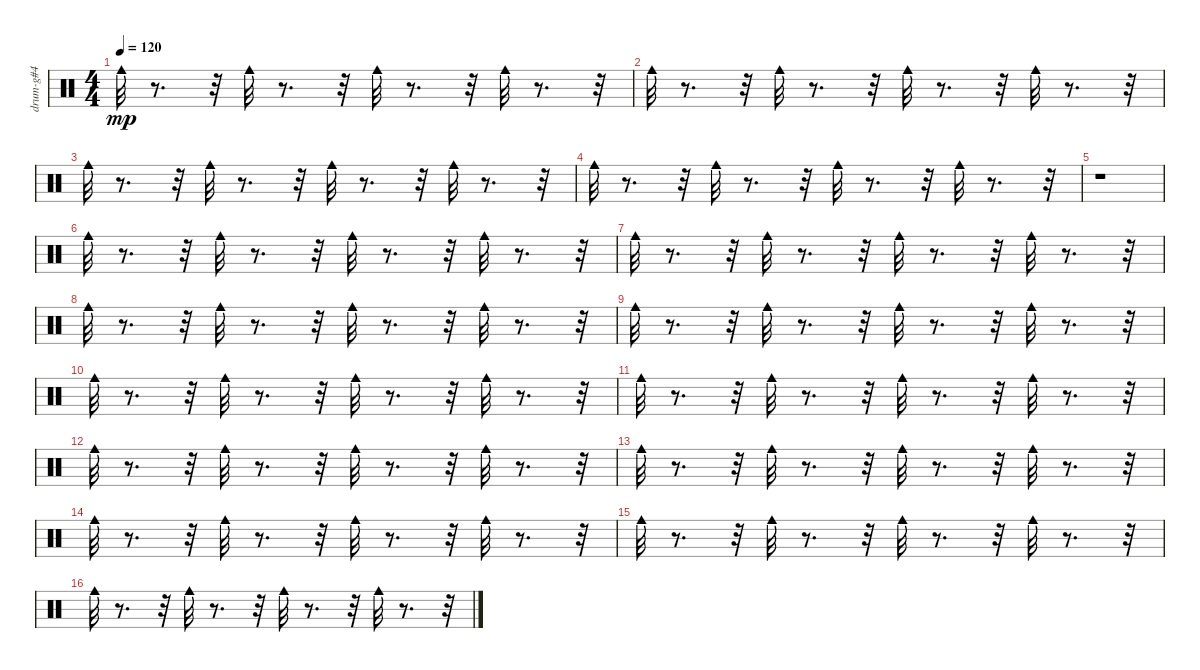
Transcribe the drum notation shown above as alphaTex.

\track ("drum-g#4" "drum-g#4") {instrument percussion}
\staff {score}
\articulation defaults
\ts (4 4)
\tempo 120
\clef neutral
\ks c "Cowbell medium (hit)".32{dy mp}
r.8{d} r.32 "Cowbell medium (hit)".32 r.8{d} r.32 "Cowbell medium (hit)".32 r.8{d} r.32 "Cowbell medium (hit)".32 r.8{d} r.32 |
"Cowbell medium (hit)".32 r.8{d} r.32 "Cowbell medium (hit)".32 r.8{d} r.32 "Cowbell medium (hit)".32 r.8{d} r.32 "Cowbell medium (hit)".32 r.8{d} r.32 |
"Cowbell medium (hit)".32 r.8{d} r.32 "Cowbell medium (hit)".32 r.8{d} r.32 "Cowbell medium (hit)".32 r.8{d} r.32 "Cowbell medium (hit)".32 r.8{d} r.32 |
"Cowbell medium (hit)".32 r.8{d} r.32 "Cowbell medium (hit)".32 r.8{d} r.32 "Cowbell medium (hit)".32 r.8{d} r.32 "Cowbell medium (hit)".32 r.8{d} r.32 |
r.1 |
"Cowbell medium (hit)".32 r.8{d} r.32 "Cowbell medium (hit)".32 r.8{d} r.32 "Cowbell medium (hit)".32 r.8{d} r.32 "Cowbell medium (hit)".32 r.8{d} r.32 |
"Cowbell medium (hit)".32 r.8{d} r.32 "Cowbell medium (hit)".32 r.8{d} r.32 "Cowbell medium (hit)".32 r.8{d} r.32 "Cowbell medium (hit)".32 r.8{d} r.32 |
"Cowbell medium (hit)".32 r.8{d} r.32 "Cowbell medium (hit)".32 r.8{d} r.32 "Cowbell medium (hit)".32 r.8{d} r.32 "Cowbell medium (hit)".32 r.8{d} r.32 |
"Cowbell medium (hit)".32 r.8{d} r.32 "Cowbell medium (hit)".32 r.8{d} r.32 "Cowbell medium (hit)".32 r.8{d} r.32 "Cowbell medium (hit)".32 r.8{d} r.32 |
"Cowbell medium (hit)".32 r.8{d} r.32 "Cowbell medium (hit)".32 r.8{d} r.32 "Cowbell medium (hit)".32 r.8{d} r.32 "Cowbell medium (hit)".32 r.8{d} r.32 |
"Cowbell medium (hit)".32 r.8{d} r.32 "Cowbell medium (hit)".32 r.8{d} r.32 "Cowbell medium (hit)".32 r.8{d} r.32 "Cowbell medium (hit)".32 r.8{d} r.32 |
"Cowbell medium (hit)".32 r.8{d} r.32 "Cowbell medium (hit)".32 r.8{d} r.32 "Cowbell medium (hit)".32 r.8{d} r.32 "Cowbell medium (hit)".32 r.8{d} r.32 |
"Cowbell medium (hit)".32 r.8{d} r.32 "Cowbell medium (hit)".32 r.8{d} r.32 "Cowbell medium (hit)".32 r.8{d} r.32 "Cowbell medium (hit)".32 r.8{d} r.32 |
"Cowbell medium (hit)".32 r.8{d} r.32 "Cowbell medium (hit)".32 r.8{d} r.32 "Cowbell medium (hit)".32 r.8{d} r.32 "Cowbell medium (hit)".32 r.8{d} r.32 |
"Cowbell medium (hit)".32 r.8{d} r.32 "Cowbell medium (hit)".32 r.8{d} r.32 "Cowbell medium (hit)".32 r.8{d} r.32 "Cowbell medium (hit)".32 r.8{d} r.32 |
"Cowbell medium (hit)".32 r.8{d} r.32 "Cowbell medium (hit)".32 r.8{d} r.32 "Cowbell medium (hit)".32 r.8{d} r.32 "Cowbell medium (hit)".32 r.8{d} r.32
